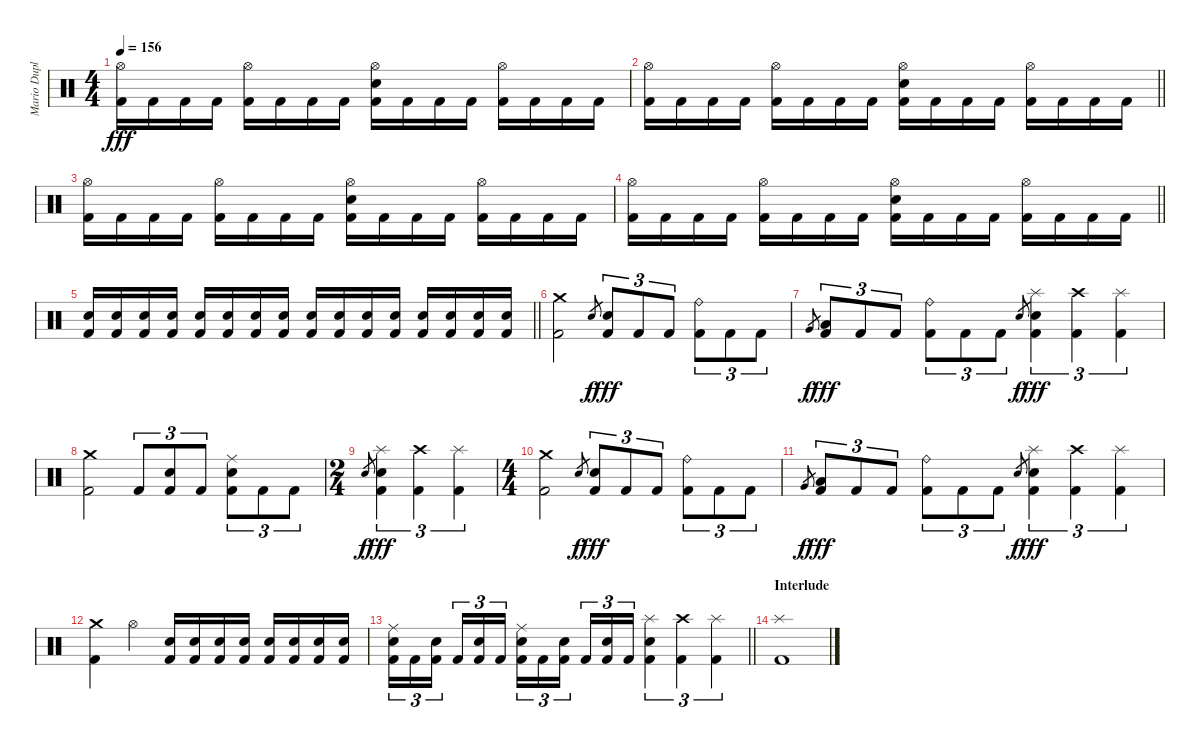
\track ("Mario Duplantier" "Mario Dupl") {instrument percussion}
\staff {score}
\articulation defaults
\ts (4 4)
\tempo 156
\clef neutral
\ks c
("Hi-Hat (open)" "Kick (hit) 2").16{dy fff} "Kick (hit) 2".16 "Kick (hit) 2".16 "Kick (hit) 2".16 ("Hi-Hat (open)" "Kick (hit) 2").16 "Kick (hit) 2".16 "Kick (hit) 2".16 "Kick (hit) 2".16 ("Hi-Hat (open)" "Electric Snare (hit)" "Kick (hit) 2").16 "Kick (hit) 2".16 "Kick (hit) 2".16 "Kick (hit) 2".16 ("Hi-Hat (open)" "Kick (hit) 2").16 "Kick (hit) 2".16 "Kick (hit) 2".16 "Kick (hit) 2".16 |
\barLineRight lightlight
("Hi-Hat (open)" "Kick (hit) 2").16 "Kick (hit) 2".16 "Kick (hit) 2".16 "Kick (hit) 2".16 ("Hi-Hat (open)" "Kick (hit) 2").16 "Kick (hit) 2".16 "Kick (hit) 2".16 "Kick (hit) 2".16 ("Hi-Hat (open)" "Electric Snare (hit)" "Kick (hit) 2").16 "Kick (hit) 2".16 "Kick (hit) 2".16 "Kick (hit) 2".16 ("Hi-Hat (open)" "Kick (hit) 2").16 "Kick (hit) 2".16 "Kick (hit) 2".16 "Kick (hit) 2".16 |
("Hi-Hat (open)" "Kick (hit) 2").16 "Kick (hit) 2".16 "Kick (hit) 2".16 "Kick (hit) 2".16 ("Hi-Hat (open)" "Kick (hit) 2").16 "Kick (hit) 2".16 "Kick (hit) 2".16 "Kick (hit) 2".16 ("Hi-Hat (open)" "Electric Snare (hit)" "Kick (hit) 2").16 "Kick (hit) 2".16 "Kick (hit) 2".16 "Kick (hit) 2".16 ("Hi-Hat (open)" "Kick (hit) 2").16 "Kick (hit) 2".16 "Kick (hit) 2".16 "Kick (hit) 2".16 |
\barLineRight lightlight
("Hi-Hat (open)" "Kick (hit) 2").16 "Kick (hit) 2".16 "Kick (hit) 2".16 "Kick (hit) 2".16 ("Hi-Hat (open)" "Kick (hit) 2").16 "Kick (hit) 2".16 "Kick (hit) 2".16 "Kick (hit) 2".16 ("Hi-Hat (open)" "Electric Snare (hit)" "Kick (hit) 2").16 "Kick (hit) 2".16 "Kick (hit) 2".16 "Kick (hit) 2".16 ("Hi-Hat (open)" "Kick (hit) 2").16 "Kick (hit) 2".16 "Kick (hit) 2".16 "Kick (hit) 2".16 |
\barLineRight lightlight
("Electric Snare (hit)" "Kick (hit) 2").16 ("Electric Snare (hit)" "Kick (hit) 2").16 ("Electric Snare (hit)" "Kick (hit) 2").16 ("Electric Snare (hit)" "Kick (hit) 2").16 ("Electric Snare (hit)" "Kick (hit) 2").16 ("Electric Snare (hit)" "Kick (hit) 2").16 ("Electric Snare (hit)" "Kick (hit) 2").16 ("Electric Snare (hit)" "Kick (hit) 2").16 ("Electric Snare (hit)" "Kick (hit) 2").16 ("Electric Snare (hit)" "Kick (hit) 2").16 ("Electric Snare (hit)" "Kick (hit) 2").16 ("Electric Snare (hit)" "Kick (hit) 2").16 ("Electric Snare (hit)" "Kick (hit) 2").16 ("Electric Snare (hit)" "Kick (hit) 2").16 ("Electric Snare (hit)" "Kick (hit) 2").16 ("Electric Snare (hit)" "Kick (hit) 2").16 |
\section ("" "")
("Crash medium (hit)" "Kick (hit) 2").2 "Electric Snare (hit)".8{gr dy f} ("Electric Snare (hit)" "Kick (hit) 2").8{tu (3 2) dy fff} "Kick (hit) 2".8{tu (3 2)} "Kick (hit) 2".8{tu (3 2)} ("Ride (bell)" "Kick (hit) 2").8{tu (3 2)} "Kick (hit) 2".8{tu (3 2)} "Kick (hit) 2".8{tu (3 2)} |
"Very Low Tom (hit)".8{gr dy f} ("Low Tom (hit)" "Kick (hit) 2").8{tu (3 2) dy fff} "Kick (hit) 2".8{tu (3 2)} "Kick (hit) 2".8{tu (3 2)} ("Ride (bell)" "Kick (hit) 2").8{tu (3 2)} "Kick (hit) 2".8{tu (3 2)} "Kick (hit) 2".8{tu (3 2)} "Electric Snare (hit)".8{gr dy f} ("Splash (hit)" "Electric Snare (hit)" "Kick (hit) 2").4{tu (3 2) dy fff} ("Crash high (hit)" "Kick (hit) 2").4{tu (3 2)} ("Splash (hit)" "Kick (hit) 2").4{tu (3 2)} |
("Crash medium (hit)" "Kick (hit) 2").2 "Kick (hit) 2".8{tu (3 2)} ("Electric Snare (hit)" "Kick (hit) 2").8{tu (3 2)} "Kick (hit) 2".8{tu (3 2)} ("Ride (middle)" "Electric Snare (hit)" "Kick (hit) 2").8{tu (3 2)} "Kick (hit) 2".8{tu (3 2)} "Kick (hit) 2".8{tu (3 2)} |
\ts (2 4)
"Electric Snare (hit)".8{gr dy f} ("Splash (hit)" "Electric Snare (hit)" "Kick (hit) 2").4{tu (3 2) dy fff} ("Crash high (hit)" "Kick (hit) 2").4{tu (3 2)} ("Splash (hit)" "Kick (hit) 2").4{tu (3 2)} |
\ts (4 4)
("Crash medium (hit)" "Kick (hit) 2").2 "Electric Snare (hit)".8{gr dy f} ("Electric Snare (hit)" "Kick (hit) 2").8{tu (3 2) dy fff} "Kick (hit) 2".8{tu (3 2)} "Kick (hit) 2".8{tu (3 2)} ("Ride (bell)" "Kick (hit) 2").8{tu (3 2)} "Kick (hit) 2".8{tu (3 2)} "Kick (hit) 2".8{tu (3 2)} |
"Very Low Tom (hit)".8{gr dy f} ("Low Tom (hit)" "Kick (hit) 2").8{tu (3 2) dy fff} "Kick (hit) 2".8{tu (3 2)} "Kick (hit) 2".8{tu (3 2)} ("Ride (bell)" "Kick (hit) 2").8{tu (3 2)} "Kick (hit) 2".8{tu (3 2)} "Kick (hit) 2".8{tu (3 2)} "Electric Snare (hit)".8{gr dy f} ("Splash (hit)" "Electric Snare (hit)" "Kick (hit) 2").4{tu (3 2) dy fff} ("Crash high (hit)" "Kick (hit) 2").4{tu (3 2)} ("Splash (hit)" "Kick (hit) 2").4{tu (3 2)} |
("Crash medium (hit)" "Kick (hit) 2").4 "Hi-Hat (open)".4 ("Electric Snare (hit)" "Kick (hit) 2").16 ("Electric Snare (hit)" "Kick (hit) 2").16 ("Electric Snare (hit)" "Kick (hit) 2").16 ("Electric Snare (hit)" "Kick (hit) 2").16 ("Electric Snare (hit)" "Kick (hit) 2").16 ("Electric Snare (hit)" "Kick (hit) 2").16 ("Electric Snare (hit)" "Kick (hit) 2").16 ("Electric Snare (hit)" "Kick (hit) 2").16 |
\barLineRight lightlight
("Ride (middle)" "Electric Snare (hit)" "Kick (hit) 2").16{tu (3 2)} "Kick (hit) 2".16{tu (3 2)} ("Electric Snare (hit)" "Kick (hit) 2").16{tu (3 2) beam splitsecondary} "Kick (hit) 2".16{tu (3 2)} ("Electric Snare (hit)" "Kick (hit) 2").16{tu (3 2)} "Kick (hit) 2".16{tu (3 2)} ("Ride (middle)" "Electric Snare (hit)" "Kick (hit) 2").16{tu (3 2)} "Kick (hit) 2".16{tu (3 2)} ("Electric Snare (hit)" "Kick (hit) 2").16{tu (3 2) beam splitsecondary} "Kick (hit) 2".16{tu (3 2)} ("Electric Snare (hit)" "Kick (hit) 2").16{tu (3 2)} "Kick (hit) 2".16{tu (3 2)} ("Splash (hit)" "Electric Snare (hit)" "Kick (hit) 2").4{tu (3 2)} ("Crash high (hit)" "Kick (hit) 2").4{tu (3 2)} ("Splash (hit)" "Kick (hit) 2").4{tu (3 2)} |
\section ("" "Interlude")
("Splash (hit)" "Kick (hit) 2").1
